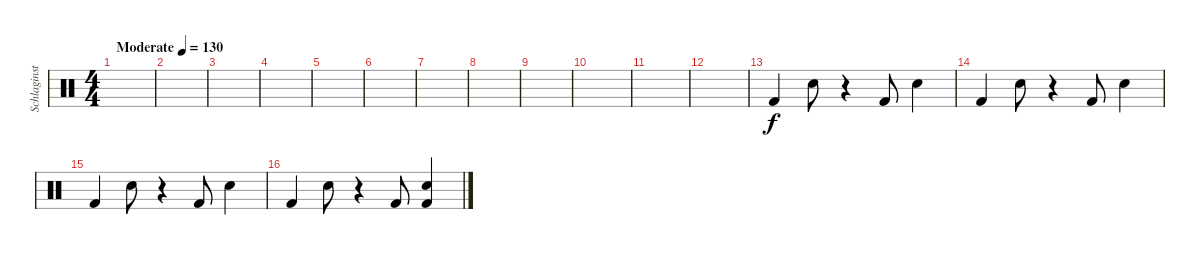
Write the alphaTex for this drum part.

\track ("Schlaginstrumente - Auswahl" "Schlaginst") {instrument percussion}
\staff {score}
\articulation defaults
\ts (4 4)
\tempo (130 "Moderate")
\clef neutral
\ks c
|
|
|
|
|
|
|
|
|
|
|
|
"Kick (hit) 2".4 "Snare (hit) 2".8 r.4 "Kick (hit) 2".8 "Snare (hit) 2".4 |
"Kick (hit) 2".4 "Snare (hit) 2".8 r.4 "Kick (hit) 2".8 "Snare (hit) 2".4 |
"Kick (hit) 2".4 "Snare (hit) 2".8 r.4 "Kick (hit) 2".8 "Snare (hit) 2".4 |
"Kick (hit) 2".4 "Snare (hit) 2".8 r.4 "Kick (hit) 2".8 ("Snare (hit) 2" "Kick (hit) 2").4
